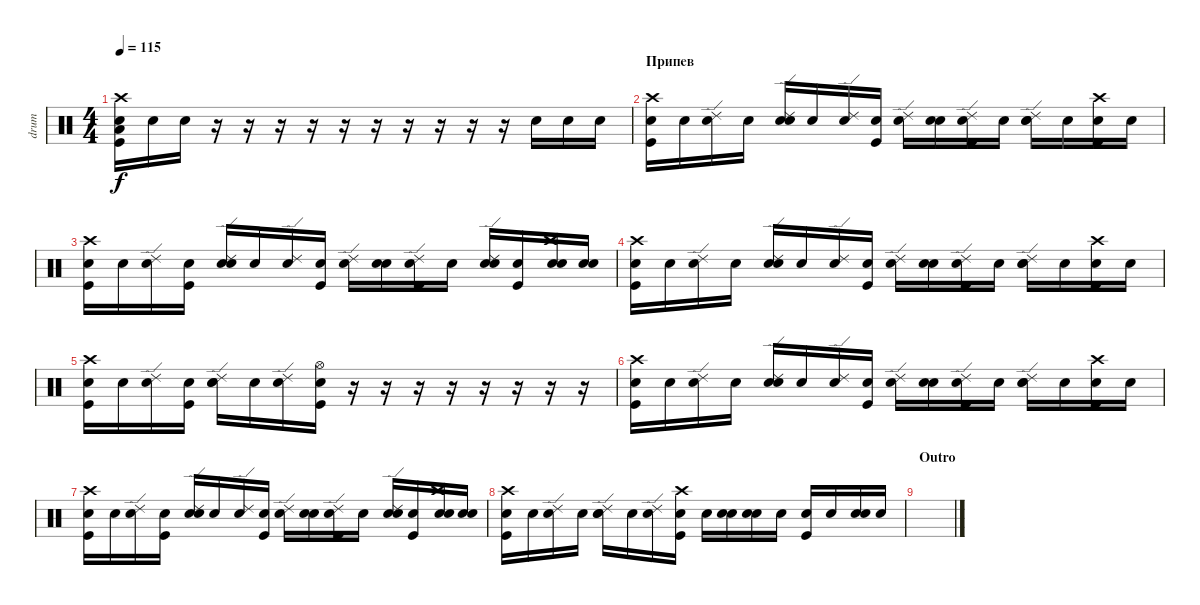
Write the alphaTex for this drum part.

\track ("drum" "drum") {instrument percussion}
\staff {score}
\articulation defaults
\ts (4 4)
\tempo 115
\clef neutral
\ks c
("Snare (hit)"{x} "Low Floor Tom (hit)" "Kick (hit)" "Crash high (hit)").16{dy f} "Snare (hit)"{x}.16 "Snare (hit)"{x}.16 r.16 r.16 r.16 r.16 r.16 r.16 r.16 r.16 r.16 r.16 "Snare (hit)"{x}.16 "Snare (hit)"{x}.16 "Snare (hit)"{x}.16 |
\section ("" "Припев")
("Snare (hit)"{x} "Crash high (hit)" "Kick (hit)").16 "Snare (hit)"{x}.16 ("Snare (hit)"{x} "Ride (edge) 2").16 "Snare (hit)"{x}.16 ("Snare (hit)"{x} "Ride (edge) 2" "Electric Snare (hit)").16 "Snare (hit)"{x}.16 ("Snare (hit)"{x} "Ride (edge) 2").16 ("Snare (hit)"{x} "Kick (hit)").16 ("Snare (hit)"{x} "Ride (edge) 2").16 ("Snare (hit)"{x} "Electric Snare (hit)").16 ("Snare (hit)"{x} "Ride (edge) 2" "Kick (hit)").16 "Snare (hit)"{x}.16 ("Snare (hit)"{x} "Ride (edge) 2" "Electric Snare (hit)").16 "Snare (hit)"{x}.16 ("Snare (hit)"{x} "Crash high (hit)" "Kick (hit)").16 "Snare (hit)"{x}.16 |
("Snare (hit)"{x} "Crash high (hit)" "Kick (hit)").16 "Snare (hit)"{x}.16 ("Snare (hit)"{x} "Ride (edge) 2").16 ("Snare (hit)"{x} "Kick (hit)").16 ("Snare (hit)"{x} "Ride (edge) 2" "Electric Snare (hit)").16 "Snare (hit)"{x}.16 ("Snare (hit)"{x} "Ride (edge) 2").16 ("Snare (hit)"{x} "Kick (hit)").16 ("Snare (hit)"{x} "Ride (edge) 2").16 ("Snare (hit)"{x} "Electric Snare (hit)").16 ("Snare (hit)"{x} "Ride (edge) 2" "Kick (hit)").16 "Snare (hit)"{x}.16 ("Snare (hit)"{x} "Ride (edge) 2" "Electric Snare (hit)").16 ("Snare (hit)"{x} "Kick (hit)").16 ("Snare (hit)"{x} "Crash high (hit)" "Electric Snare (hit)").16 ("Snare (hit)"{x} "Electric Snare (hit)").16 |
("Snare (hit)"{x} "Crash high (hit)" "Kick (hit)").16 "Snare (hit)"{x}.16 ("Snare (hit)"{x} "Ride (edge) 2").16 "Snare (hit)"{x}.16 ("Snare (hit)"{x} "Ride (edge) 2" "Electric Snare (hit)").16 "Snare (hit)"{x}.16 ("Snare (hit)"{x} "Ride (edge) 2").16 ("Snare (hit)"{x} "Kick (hit)").16 ("Snare (hit)"{x} "Ride (edge) 2").16 ("Snare (hit)"{x} "Electric Snare (hit)").16 ("Snare (hit)"{x} "Ride (edge) 2" "Kick (hit)").16 "Snare (hit)"{x}.16 ("Snare (hit)"{x} "Ride (edge) 2" "Electric Snare (hit)").16 "Snare (hit)"{x}.16 ("Snare (hit)"{x} "Crash high (hit)" "Kick (hit)").16 "Snare (hit)"{x}.16 |
("Snare (hit)"{x} "Crash high (hit)" "Kick (hit)").16 "Snare (hit)"{x}.16 ("Snare (hit)"{x} "Ride (edge) 2").16 ("Snare (hit)"{x} "Kick (hit)").16 ("Snare (hit)"{x} "Ride (edge) 2" "Electric Snare (hit)").16 "Snare (hit)"{x}.16 ("Snare (hit)"{x} "Ride (edge) 2").16 ("Snare (hit)"{x} "Hi-Hat (open)" "Kick (hit)").16 r.16 r.16 r.16 r.16 r.16 r.16 r.16 r.16 |
("Snare (hit)"{x} "Crash high (hit)" "Kick (hit)").16 "Snare (hit)"{x}.16 ("Snare (hit)"{x} "Ride (edge) 2").16 "Snare (hit)"{x}.16 ("Snare (hit)"{x} "Ride (edge) 2" "Electric Snare (hit)").16 "Snare (hit)"{x}.16 ("Snare (hit)"{x} "Ride (edge) 2").16 ("Snare (hit)"{x} "Kick (hit)").16 ("Snare (hit)"{x} "Ride (edge) 2").16 ("Snare (hit)"{x} "Electric Snare (hit)").16 ("Snare (hit)"{x} "Ride (edge) 2" "Kick (hit)").16 "Snare (hit)"{x}.16 ("Snare (hit)"{x} "Ride (edge) 2" "Electric Snare (hit)").16 "Snare (hit)"{x}.16 ("Snare (hit)"{x} "Crash high (hit)" "Kick (hit)").16 "Snare (hit)"{x}.16 |
("Snare (hit)"{x} "Crash high (hit)" "Kick (hit)").16 "Snare (hit)"{x}.16 ("Snare (hit)"{x} "Ride (edge) 2").16 ("Snare (hit)"{x} "Kick (hit)").16 ("Snare (hit)"{x} "Ride (edge) 2" "Electric Snare (hit)").16 "Snare (hit)"{x}.16 ("Snare (hit)"{x} "Ride (edge) 2").16 ("Snare (hit)"{x} "Kick (hit)").16 ("Snare (hit)"{x} "Ride (edge) 2").16 ("Snare (hit)"{x} "Electric Snare (hit)").16 ("Snare (hit)"{x} "Ride (edge) 2" "Kick (hit)").16 "Snare (hit)"{x}.16 ("Snare (hit)"{x} "Ride (edge) 2" "Electric Snare (hit)").16 ("Snare (hit)"{x} "Kick (hit)").16 ("Snare (hit)"{x} "Crash high (hit)" "Electric Snare (hit)").16 ("Snare (hit)"{x} "Electric Snare (hit)").16 |
("Snare (hit)"{x} "Crash high (hit)" "Kick (hit)").16 "Snare (hit)"{x}.16 ("Snare (hit)"{x} "Ride (edge) 2").16 "Snare (hit)"{x}.16 ("Snare (hit)"{x} "Ride (edge) 2" "Electric Snare (hit)").16 "Snare (hit)"{x}.16 ("Snare (hit)"{x} "Ride (edge) 2").16 ("Snare (hit)"{x} "Crash high (hit)" "Kick (hit)").16 "Electric Snare (hit)"{x}.16 ("Electric Snare (hit)" "Snare (hit)"{x}).16 ("Electric Snare (hit)" "Snare (hit)"{x}).16 "Snare (hit)"{x}.16 ("Kick (hit)" "Snare (hit)"{x}).16 "Snare (hit)"{x}.16 ("Electric Snare (hit)" "Snare (hit)"{x}).16 "Snare (hit)"{x}.16 |
\section ("" "Outro")
